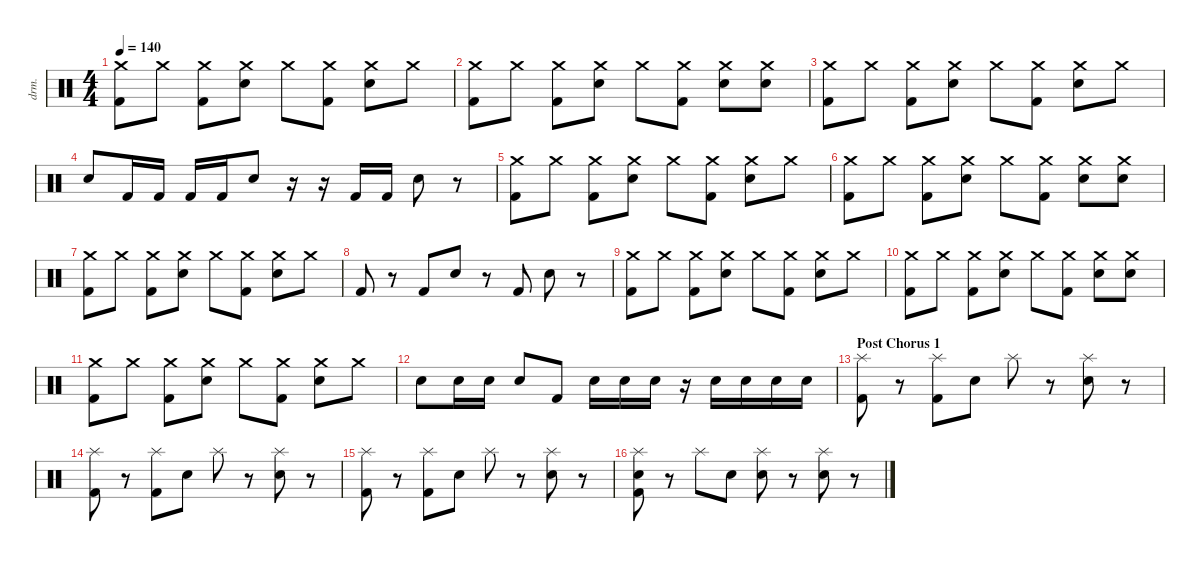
\defaultSystemsLayout 4
\hideDynamics
\bracketExtendMode nobrackets
\otherSystemsTrackNameOrientation horizontal
\track ("Drumkit" "drm.") {instrument percussion}
\staff {score}
\articulation defaults
\ts (4 4)
\tempo 140
\clef neutral
\ks c
("Crash medium (hit)" "Kick (hit) 2").8{dy mf beam Down} "Crash medium (hit)".8{beam Down} ("Crash medium (hit)" "Kick (hit) 2").8{beam Down} ("Snare (hit) 2" "Crash medium (hit)").8{beam Down} "Crash medium (hit)".8{beam Down} ("Crash medium (hit)" "Kick (hit) 2").8{beam Down} ("Crash medium (hit)" "Snare (hit) 2").8{beam Down} "Crash medium (hit)".8{beam Down} |
("Crash medium (hit)" "Kick (hit) 2").8{beam Down} "Crash medium (hit)".8{beam Down} ("Crash medium (hit)" "Kick (hit) 2").8{beam Down} ("Snare (hit) 2" "Crash medium (hit)").8{beam Down} "Crash medium (hit)".8{beam Down} ("Crash medium (hit)" "Kick (hit) 2").8{beam Down} ("Crash medium (hit)" "Snare (hit) 2").8{beam Down} ("Crash medium (hit)" "Snare (hit) 2").8{beam Down} |
("Crash medium (hit)" "Kick (hit) 2").8{beam Down} "Crash medium (hit)".8{beam Down} ("Crash medium (hit)" "Kick (hit) 2").8{beam Down} ("Snare (hit) 2" "Crash medium (hit)").8{beam Down} "Crash medium (hit)".8{beam Down} ("Crash medium (hit)" "Kick (hit) 2").8{beam Down} ("Crash medium (hit)" "Snare (hit) 2").8{beam Down} "Crash medium (hit)".8{beam Down} |
"Snare (hit) 2".8{beam Up} "Kick (hit) 2".16{beam Up} "Kick (hit) 2".16{beam Up} "Kick (hit) 2".16{beam Up} "Kick (hit) 2".16{beam Up} "Snare (hit) 2".8{beam Up} r.16{beam Up} r.16{beam Up} "Kick (hit) 2".16{dy f beam Up} "Kick (hit) 2".16{beam Up} "Snare (hit) 2".8{dy mf beam Down} r.8{beam Down} |
("Crash medium (hit)" "Kick (hit) 2").8{beam Down} "Crash medium (hit)".8{beam Down} ("Crash medium (hit)" "Kick (hit) 2").8{beam Down} ("Snare (hit) 2" "Crash medium (hit)").8{beam Down} "Crash medium (hit)".8{beam Down} ("Crash medium (hit)" "Kick (hit) 2").8{beam Down} ("Crash medium (hit)" "Snare (hit) 2").8{beam Down} "Crash medium (hit)".8{beam Down} |
("Crash medium (hit)" "Kick (hit) 2").8{beam Down} "Crash medium (hit)".8{beam Down} ("Crash medium (hit)" "Kick (hit) 2").8{beam Down} ("Snare (hit) 2" "Crash medium (hit)").8{beam Down} "Crash medium (hit)".8{beam Down} ("Crash medium (hit)" "Kick (hit) 2").8{beam Down} ("Crash medium (hit)" "Snare (hit) 2").8{beam Down} ("Crash medium (hit)" "Snare (hit) 2").8{beam Down} |
("Crash medium (hit)" "Kick (hit) 2").8{beam Down} "Crash medium (hit)".8{beam Down} ("Crash medium (hit)" "Kick (hit) 2").8{beam Down} ("Snare (hit) 2" "Crash medium (hit)").8{beam Down} "Crash medium (hit)".8{beam Down} ("Crash medium (hit)" "Kick (hit) 2").8{beam Down} ("Crash medium (hit)" "Snare (hit) 2").8{beam Down} "Crash medium (hit)".8{beam Down} |
"Kick (hit) 2".8{beam Up} r.8{beam Up} "Kick (hit) 2".8{beam Up} "Snare (hit) 2".8{beam Up} r.8{beam Up} "Kick (hit) 2".8{beam Up} "Snare (hit) 2".8{beam Down} r.8{beam Down} |
("Crash medium (hit)" "Kick (hit) 2").8{beam Down} "Crash medium (hit)".8{beam Down} ("Crash medium (hit)" "Kick (hit) 2").8{beam Down} ("Snare (hit) 2" "Crash medium (hit)").8{beam Down} "Crash medium (hit)".8{beam Down} ("Crash medium (hit)" "Kick (hit) 2").8{beam Down} ("Crash medium (hit)" "Snare (hit) 2").8{beam Down} "Crash medium (hit)".8{beam Down} |
("Crash medium (hit)" "Kick (hit) 2").8{beam Down} "Crash medium (hit)".8{beam Down} ("Crash medium (hit)" "Kick (hit) 2").8{beam Down} ("Snare (hit) 2" "Crash medium (hit)").8{beam Down} "Crash medium (hit)".8{beam Down} ("Crash medium (hit)" "Kick (hit) 2").8{beam Down} ("Crash medium (hit)" "Snare (hit) 2").8{beam Down} ("Crash medium (hit)" "Snare (hit) 2").8{beam Down} |
("Crash medium (hit)" "Kick (hit) 2").8{beam Down} "Crash medium (hit)".8{beam Down} ("Crash medium (hit)" "Kick (hit) 2").8{beam Down} ("Snare (hit) 2" "Crash medium (hit)").8{beam Down} "Crash medium (hit)".8{beam Down} ("Crash medium (hit)" "Kick (hit) 2").8{beam Down} ("Crash medium (hit)" "Snare (hit) 2").8{beam Down} "Crash medium (hit)".8{beam Down} |
"Snare (hit) 2".8{beam Down} "Snare (hit) 2".16{beam Down} "Snare (hit) 2".16{beam Down} "Snare (hit) 2".8{beam Up} "Kick (hit) 2".8{beam Up} "Snare (hit) 2".16{beam Down} "Snare (hit) 2".16{beam Down} "Snare (hit) 2".16{beam Down} r.16{beam Down} "Snare (hit) 2".16{beam Down} "Snare (hit) 2".16{beam Down} "Snare (hit) 2".16{beam Down} "Snare (hit) 2".16{beam Down} |
\section ("" "Post Chorus 1")
("Kick (hit) 2" "Splash (hit)").8{beam Down} r.8{beam Down} ("Kick (hit) 2" "Splash (hit)").8{beam Down} "Snare (hit) 2".8{beam Down} "Splash (hit)".8{beam Down} r.8{beam Down} ("Snare (hit) 2" "Splash (hit)").8{beam Down} r.8{beam Down} |
("Kick (hit) 2" "Splash (hit)").8{beam Down} r.8{beam Down} ("Kick (hit) 2" "Splash (hit)").8{beam Down} "Snare (hit) 2".8{beam Down} "Splash (hit)".8{beam Down} r.8{beam Down} ("Snare (hit) 2" "Splash (hit)").8{beam Down} r.8{beam Down} |
("Kick (hit) 2" "Splash (hit)").8{beam Down} r.8{beam Down} ("Kick (hit) 2" "Splash (hit)").8{beam Down} "Snare (hit) 2".8{beam Down} "Splash (hit)".8{beam Down} r.8{beam Down} ("Snare (hit) 2" "Splash (hit)").8{beam Down} r.8{beam Down} |
("Splash (hit)" "Snare (hit) 2" "Kick (hit) 2").8{beam Down} r.8{beam Down} "Splash (hit)".8{beam Down} "Snare (hit) 2".8{beam Down} ("Splash (hit)" "Snare (hit) 2").8{beam Down} r.8{beam Down} ("Snare (hit) 2" "Splash (hit)").8{beam Down} r.8{beam Down}
